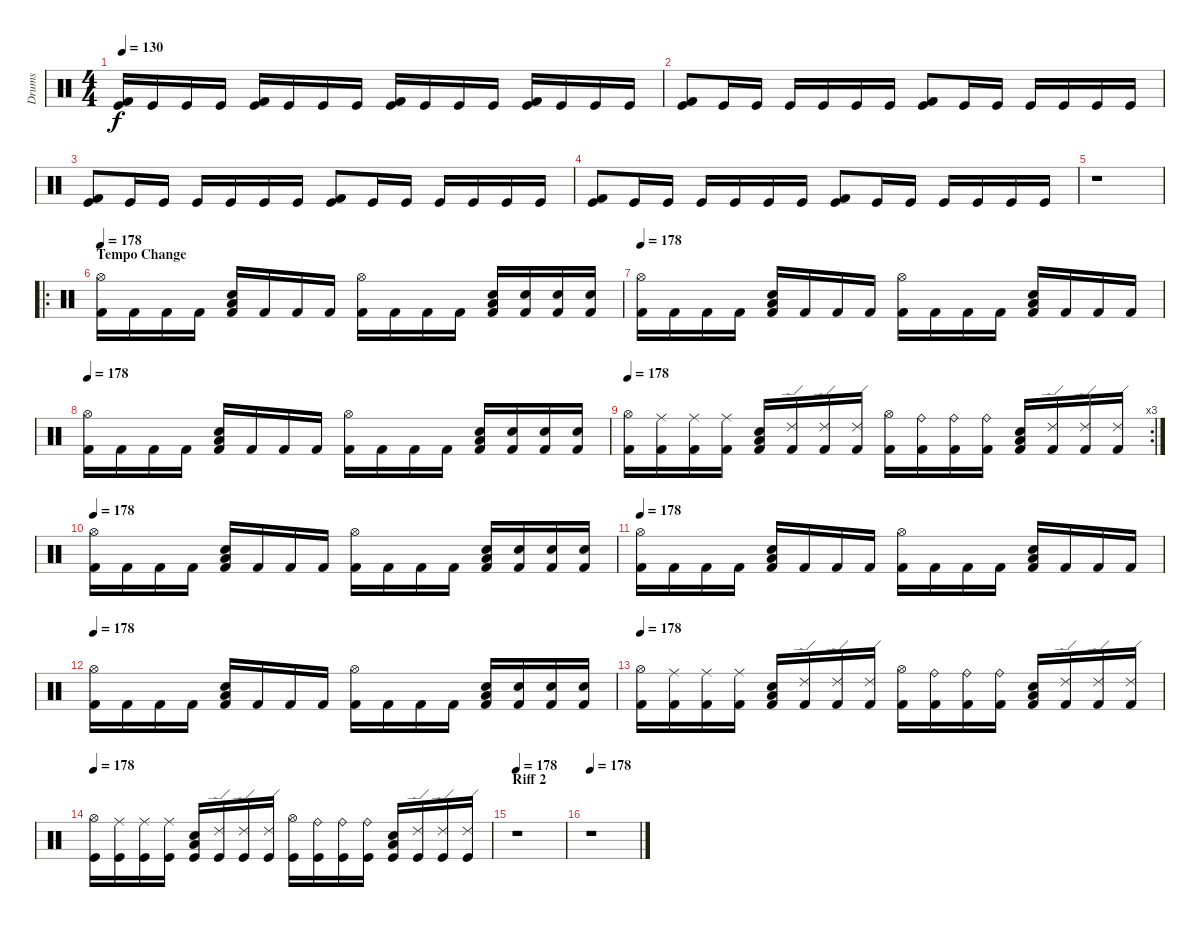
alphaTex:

\track ("Drums" "Drums") {instrument percussion}
\staff {score}
\articulation defaults
\ts (4 4)
\tempo 130
\clef neutral
\ks c
("Kick (hit) 2" "Kick (hit)").16{dy f} "Kick (hit)".16 "Kick (hit)".16 "Kick (hit)".16 ("Kick (hit) 2" "Kick (hit)").16 "Kick (hit)".16 "Kick (hit)".16 "Kick (hit)".16 ("Kick (hit) 2" "Kick (hit)").16 "Kick (hit)".16 "Kick (hit)".16 "Kick (hit)".16 ("Kick (hit) 2" "Kick (hit)").16 "Kick (hit)".16 "Kick (hit)".16 "Kick (hit)".16 |
("Kick (hit) 2" "Kick (hit)").8 "Kick (hit)".16 "Kick (hit)".16 "Kick (hit)".16 "Kick (hit)".16 "Kick (hit)".16 "Kick (hit)".16 ("Kick (hit) 2" "Kick (hit)").8 "Kick (hit)".16 "Kick (hit)".16 "Kick (hit)".16 "Kick (hit)".16 "Kick (hit)".16 "Kick (hit)".16 |
("Kick (hit) 2" "Kick (hit)").8 "Kick (hit)".16 "Kick (hit)".16 "Kick (hit)".16 "Kick (hit)".16 "Kick (hit)".16 "Kick (hit)".16 ("Kick (hit) 2" "Kick (hit)").8 "Kick (hit)".16 "Kick (hit)".16 "Kick (hit)".16 "Kick (hit)".16 "Kick (hit)".16 "Kick (hit)".16 |
("Kick (hit) 2" "Kick (hit)").8 "Kick (hit)".16 "Kick (hit)".16 "Kick (hit)".16 "Kick (hit)".16 "Kick (hit)".16 "Kick (hit)".16 ("Kick (hit) 2" "Kick (hit)").8 "Kick (hit)".16 "Kick (hit)".16 "Kick (hit)".16 "Kick (hit)".16 "Kick (hit)".16 "Kick (hit)".16 |
r.1 |
\ro
\section ("" "Tempo Change")
\tempo 178
("Hi-Hat (open)" "Kick (hit) 2").16 "Kick (hit) 2".16 "Kick (hit) 2".16 "Kick (hit) 2".16 ("Low Floor Tom (hit)" "Snare (hit) 2" "Kick (hit) 2").16 "Kick (hit) 2".16 "Kick (hit) 2".16 "Kick (hit) 2".16 ("Hi-Hat (open)" "Kick (hit) 2").16 "Kick (hit) 2".16 "Kick (hit) 2".16 "Kick (hit) 2".16 ("Low Floor Tom (hit)" "Snare (hit) 2" "Kick (hit) 2").16 ("Electric Snare (hit)" "Kick (hit) 2").16 ("Electric Snare (hit)" "Kick (hit) 2").16 ("Electric Snare (hit)" "Kick (hit) 2").16 |
\tempo 178
("Hi-Hat (open)" "Kick (hit) 2").16 "Kick (hit) 2".16 "Kick (hit) 2".16 "Kick (hit) 2".16 ("Low Floor Tom (hit)" "Snare (hit) 2" "Kick (hit) 2").16 "Kick (hit) 2".16 "Kick (hit) 2".16 "Kick (hit) 2".16 ("Hi-Hat (open)" "Kick (hit) 2").16 "Kick (hit) 2".16 "Kick (hit) 2".16 "Kick (hit) 2".16 ("Low Floor Tom (hit)" "Snare (hit) 2" "Kick (hit) 2").16 "Kick (hit) 2".16 "Kick (hit) 2".16 "Kick (hit) 2".16 |
\tempo 178
("Hi-Hat (open)" "Kick (hit) 2").16 "Kick (hit) 2".16 "Kick (hit) 2".16 "Kick (hit) 2".16 ("Low Floor Tom (hit)" "Snare (hit) 2" "Kick (hit) 2").16 "Kick (hit) 2".16 "Kick (hit) 2".16 "Kick (hit) 2".16 ("Hi-Hat (open)" "Kick (hit) 2").16 "Kick (hit) 2".16 "Kick (hit) 2".16 "Kick (hit) 2".16 ("Low Floor Tom (hit)" "Snare (hit) 2" "Kick (hit) 2").16 ("Electric Snare (hit)" "Kick (hit) 2").16 ("Electric Snare (hit)" "Kick (hit) 2").16 ("Electric Snare (hit)" "Kick (hit) 2").16 |
\rc 3
\tempo 178
("Hi-Hat (open)" "Kick (hit) 2").16 ("Ride (middle)" "Kick (hit) 2").16 ("Ride (middle)" "Kick (hit) 2").16 ("Ride (middle)" "Kick (hit) 2").16 ("Low Floor Tom (hit)" "Snare (hit) 2" "Kick (hit) 2").16 ("Ride (edge) 2" "Kick (hit) 2").16 ("Ride (edge) 2" "Kick (hit) 2").16 ("Ride (edge) 2" "Kick (hit) 2").16 ("Hi-Hat (open)" "Kick (hit) 2").16 ("Ride (bell)" "Kick (hit) 2").16 ("Ride (bell)" "Kick (hit) 2").16 ("Ride (bell)" "Kick (hit) 2").16 ("Low Floor Tom (hit)" "Snare (hit) 2" "Kick (hit) 2").16 ("Ride (edge) 2" "Kick (hit) 2").16 ("Ride (edge) 2" "Kick (hit) 2").16 ("Ride (edge) 2" "Kick (hit) 2").16 |
\tempo 178
("Hi-Hat (open)" "Kick (hit) 2").16 "Kick (hit) 2".16 "Kick (hit) 2".16 "Kick (hit) 2".16 ("Low Floor Tom (hit)" "Snare (hit) 2" "Kick (hit) 2").16 "Kick (hit) 2".16 "Kick (hit) 2".16 "Kick (hit) 2".16 ("Hi-Hat (open)" "Kick (hit) 2").16 "Kick (hit) 2".16 "Kick (hit) 2".16 "Kick (hit) 2".16 ("Low Floor Tom (hit)" "Snare (hit) 2" "Kick (hit) 2").16 ("Electric Snare (hit)" "Kick (hit) 2").16 ("Electric Snare (hit)" "Kick (hit) 2").16 ("Electric Snare (hit)" "Kick (hit) 2").16 |
\tempo 178
("Hi-Hat (open)" "Kick (hit) 2").16 "Kick (hit) 2".16 "Kick (hit) 2".16 "Kick (hit) 2".16 ("Low Floor Tom (hit)" "Snare (hit) 2" "Kick (hit) 2").16 "Kick (hit) 2".16 "Kick (hit) 2".16 "Kick (hit) 2".16 ("Hi-Hat (open)" "Kick (hit) 2").16 "Kick (hit) 2".16 "Kick (hit) 2".16 "Kick (hit) 2".16 ("Low Floor Tom (hit)" "Snare (hit) 2" "Kick (hit) 2").16 "Kick (hit) 2".16 "Kick (hit) 2".16 "Kick (hit) 2".16 |
\tempo 178
("Hi-Hat (open)" "Kick (hit) 2").16 "Kick (hit) 2".16 "Kick (hit) 2".16 "Kick (hit) 2".16 ("Low Floor Tom (hit)" "Snare (hit) 2" "Kick (hit) 2").16 "Kick (hit) 2".16 "Kick (hit) 2".16 "Kick (hit) 2".16 ("Hi-Hat (open)" "Kick (hit) 2").16 "Kick (hit) 2".16 "Kick (hit) 2".16 "Kick (hit) 2".16 ("Low Floor Tom (hit)" "Snare (hit) 2" "Kick (hit) 2").16 ("Electric Snare (hit)" "Kick (hit) 2").16 ("Electric Snare (hit)" "Kick (hit) 2").16 ("Electric Snare (hit)" "Kick (hit) 2").16 |
\tempo 178
("Hi-Hat (open)" "Kick (hit) 2").16 ("Ride (middle)" "Kick (hit) 2").16 ("Ride (middle)" "Kick (hit) 2").16 ("Ride (middle)" "Kick (hit) 2").16 ("Low Floor Tom (hit)" "Snare (hit) 2" "Kick (hit) 2").16 ("Ride (edge) 2" "Kick (hit) 2").16 ("Ride (edge) 2" "Kick (hit) 2").16 ("Ride (edge) 2" "Kick (hit) 2").16 ("Hi-Hat (open)" "Kick (hit) 2").16 ("Ride (bell)" "Kick (hit) 2").16 ("Ride (bell)" "Kick (hit) 2").16 ("Ride (bell)" "Kick (hit) 2").16 ("Low Floor Tom (hit)" "Snare (hit) 2" "Kick (hit) 2").16 ("Ride (edge) 2" "Kick (hit) 2").16 ("Ride (edge) 2" "Kick (hit) 2").16 ("Ride (edge) 2" "Kick (hit) 2").16 |
\tempo 178
("Hi-Hat (open)" "Kick (hit)").16 ("Ride (middle)" "Kick (hit)").16 ("Ride (middle)" "Kick (hit)").16 ("Ride (middle)" "Kick (hit)").16 ("Low Floor Tom (hit)" "Snare (hit) 2" "Kick (hit)").16 ("Ride (edge) 2" "Kick (hit)").16 ("Ride (edge) 2" "Kick (hit)").16 ("Ride (edge) 2" "Kick (hit)").16 ("Hi-Hat (open)" "Kick (hit)").16 ("Ride (bell)" "Kick (hit)").16 ("Ride (bell)" "Kick (hit)").16 ("Ride (bell)" "Kick (hit)").16 ("Low Floor Tom (hit)" "Snare (hit) 2" "Kick (hit)").16 ("Ride (edge) 2" "Kick (hit)").16 ("Ride (edge) 2" "Kick (hit)").16 ("Ride (edge) 2" "Kick (hit)").16 |
\section ("" "Riff 2")
\tempo 178
r.1 |
\tempo 178
r.1
